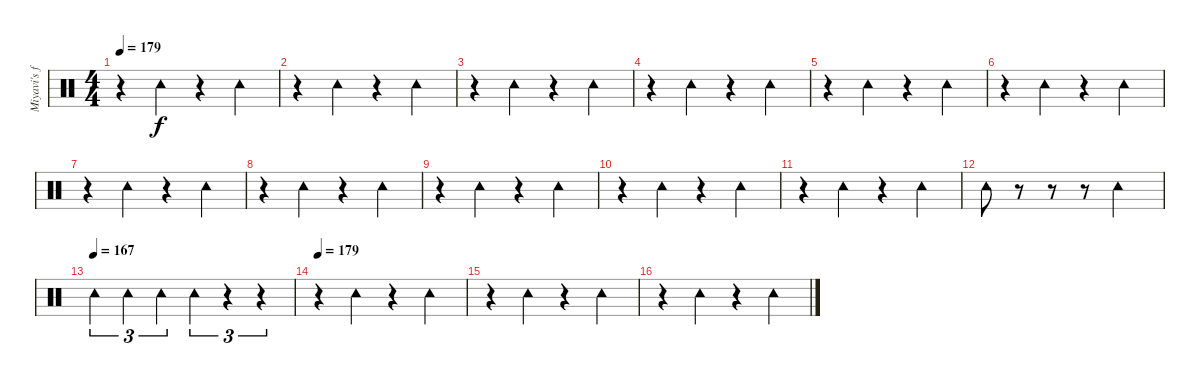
\track ("Miyavi's foot" "Miyavi's f") {instrument percussion}
\staff {score}
\articulation defaults
\ts (4 4)
\tempo 179
\clef neutral
\ks c
r.4{dy f} "Tambourine (hit)".4 r.4 "Tambourine (hit)".4 |
r.4 "Tambourine (hit)".4 r.4 "Tambourine (hit)".4 |
r.4 "Tambourine (hit)".4 r.4 "Tambourine (hit)".4 |
r.4 "Tambourine (hit)".4 r.4 "Tambourine (hit)".4 |
r.4 "Tambourine (hit)".4 r.4 "Tambourine (hit)".4 |
r.4 "Tambourine (hit)".4 r.4 "Tambourine (hit)".4 |
r.4 "Tambourine (hit)".4 r.4 "Tambourine (hit)".4 |
r.4 "Tambourine (hit)".4 r.4 "Tambourine (hit)".4 |
r.4 "Tambourine (hit)".4 r.4 "Tambourine (hit)".4 |
r.4 "Tambourine (hit)".4 r.4 "Tambourine (hit)".4 |
r.4 "Tambourine (hit)".4 r.4 "Tambourine (hit)".4 |
"Tambourine (hit)".8 r.8 r.8 r.8 "Tambourine (hit)".2 |
\tempo (167)
"Tambourine (hit)".4{tu (3 2)} "Tambourine (hit)".4{tu (3 2)} "Tambourine (hit)".4{tu (3 2)} "Tambourine (hit)".4{tu (3 2)} r.4{tu (3 2)} r.4{tu (3 2)} |
\tempo 179
r.4 "Tambourine (hit)".4 r.4 "Tambourine (hit)".4 |
r.4 "Tambourine (hit)".4 r.4 "Tambourine (hit)".4 |
r.4 "Tambourine (hit)".4 r.4 "Tambourine (hit)".4
